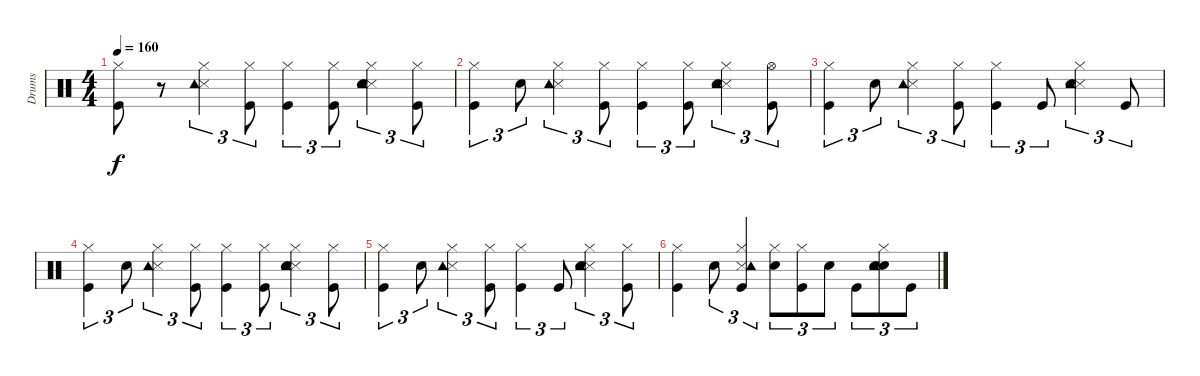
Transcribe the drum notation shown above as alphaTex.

\track ("Drums   " "Drums   ") {instrument percussion}
\staff {score}
\articulation defaults
\ts (4 4)
\tempo 160
\clef neutral
\ks c
("Kick (hit)" "Hi-Hat (closed)").8{dy f} r.8 ("Snare (side stick) 3" "Tambourine (hit)" "Hi-Hat (closed)").4{tu (3 2)} ("Kick (hit)" "Hi-Hat (closed)").8{tu (3 2)} ("Kick (hit)" "Hi-Hat (closed)").4{tu (3 2)} ("Kick (hit)" "Hi-Hat (closed)").8{tu (3 2)} ("Snare (side stick) 3" "Hand Clap (hit)" "Tambourine (hit)" "Hi-Hat (closed)").4{tu (3 2)} ("Kick (hit)" "Hi-Hat (closed)").8{tu (3 2)} |
("Kick (hit)" "Hi-Hat (closed)").4{tu (3 2)} "Snare (hit) 2".8{tu (3 2)} ("Snare (side stick) 3" "Tambourine (hit)" "Hi-Hat (closed)").4{tu (3 2)} ("Kick (hit)" "Hi-Hat (closed)").8{tu (3 2)} ("Kick (hit)" "Hi-Hat (closed)").4{tu (3 2)} ("Kick (hit)" "Hi-Hat (closed)").8{tu (3 2)} ("Snare (side stick) 3" "Hand Clap (hit)" "Tambourine (hit)" "Hi-Hat (closed)").4{tu (3 2)} ("Kick (hit)" "Hi-Hat (open)").8{tu (3 2)} |
("Kick (hit)" "Hi-Hat (closed)").4{tu (3 2)} "Snare (hit) 2".8{tu (3 2)} ("Snare (side stick) 3" "Tambourine (hit)" "Hi-Hat (closed)").4{tu (3 2)} ("Kick (hit)" "Hi-Hat (closed)").8{tu (3 2)} ("Kick (hit)" "Hi-Hat (closed)").4{tu (3 2)} "Kick (hit)".8{tu (3 2)} ("Snare (side stick) 3" "Hand Clap (hit)" "Tambourine (hit)" "Hi-Hat (closed)").4{tu (3 2)} "Kick (hit)".8{tu (3 2)} |
("Kick (hit)" "Hi-Hat (closed)").4{tu (3 2)} "Snare (hit) 2".8{tu (3 2)} ("Snare (side stick) 3" "Tambourine (hit)" "Hi-Hat (closed)").4{tu (3 2)} ("Kick (hit)" "Hi-Hat (closed)").8{tu (3 2)} ("Kick (hit)" "Hi-Hat (closed)").4{tu (3 2)} ("Kick (hit)" "Hi-Hat (closed)").8{tu (3 2)} ("Snare (side stick) 3" "Hand Clap (hit)" "Tambourine (hit)" "Hi-Hat (closed)").4{tu (3 2)} ("Kick (hit)" "Hi-Hat (closed)").8{tu (3 2)} |
("Kick (hit)" "Hi-Hat (closed)").4{tu (3 2)} "Snare (hit) 2".8{tu (3 2)} ("Snare (side stick) 3" "Tambourine (hit)" "Hi-Hat (closed)").4{tu (3 2)} ("Kick (hit)" "Hi-Hat (closed)").8{tu (3 2)} ("Kick (hit)" "Hi-Hat (closed)").4{tu (3 2)} "Kick (hit)".8{tu (3 2)} ("Snare (side stick) 3" "Hand Clap (hit)" "Tambourine (hit)" "Hi-Hat (closed)").4{tu (3 2)} ("Kick (hit)" "Hi-Hat (closed)").8{tu (3 2)} |
("Kick (hit)" "Hi-Hat (closed)").4 "Snare (hit) 2".8{tu (3 2)} ("Kick (hit)" "Snare (side stick) 3" "Tambourine (hit)" "Hi-Hat (closed)").4{tu (3 2)} ("Snare (hit) 2" "Hi-Hat (closed)").8{tu (3 2)} ("Kick (hit)" "Hi-Hat (closed)").8{tu (3 2)} "Snare (hit) 2".8{tu (3 2)} "Kick (hit)".8{tu (3 2)} ("Snare (hit) 2" "Hand Clap (hit)" "Tambourine (hit)" "Hi-Hat (closed)").8{tu (3 2)} "Kick (hit)".8{tu (3 2)}
